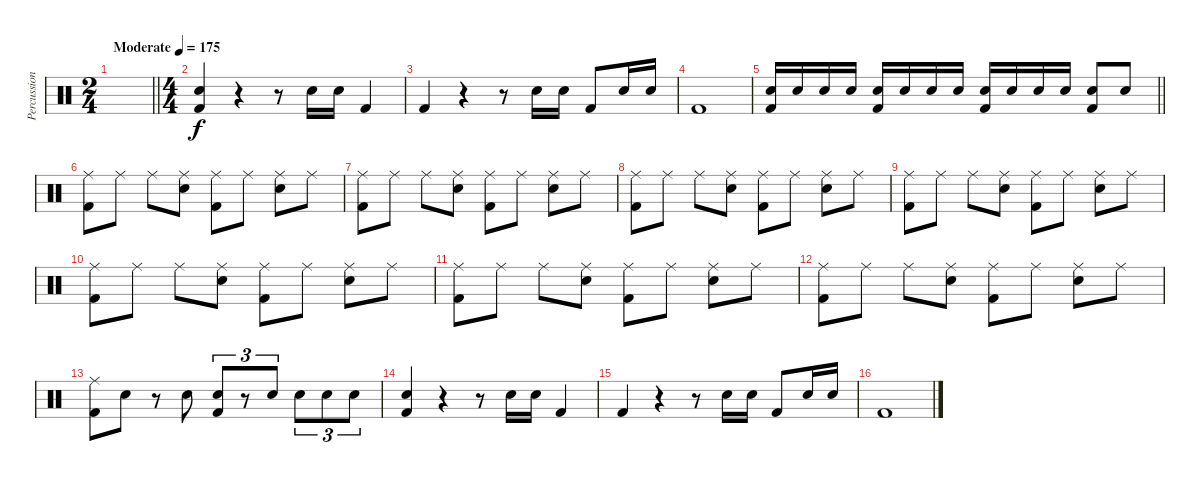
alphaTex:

\track ("Percussion" "Percussion") {instrument percussion}
\staff {score}
\articulation defaults
\ts (2 4)
\tempo (175 "Moderate")
\clef neutral
\barLineRight lightlight
\ks c
|
\ts (4 4)
("Snare (hit) 2" "Kick (hit) 2").4 r.4 r.8 "Snare (hit) 2".16 "Snare (hit) 2".16 "Kick (hit) 2".4 |
"Kick (hit) 2".4 r.4 r.8 "Snare (hit) 2".16 "Snare (hit) 2".16 "Kick (hit) 2".8 "Snare (hit) 2".16 "Snare (hit) 2".16 |
"Kick (hit) 2".1 |
\barLineRight lightlight
("Snare (hit) 2" "Kick (hit) 2").16 "Snare (hit) 2".16 "Snare (hit) 2".16 "Snare (hit) 2".16 ("Snare (hit) 2" "Kick (hit) 2").16 "Snare (hit) 2".16 "Snare (hit) 2".16 "Snare (hit) 2".16 ("Snare (hit) 2" "Kick (hit) 2").16 "Snare (hit) 2".16 "Snare (hit) 2".16 "Snare (hit) 2".16 ("Snare (hit) 2" "Kick (hit) 2").8 "Snare (hit) 2".8 |
("Ride (middle)" "Kick (hit) 2").8 "Ride (middle)".8 "Ride (middle)".8 ("Ride (middle)" "Snare (hit) 2").8 ("Ride (middle)" "Kick (hit) 2").8 "Ride (middle)".8 ("Ride (middle)" "Snare (hit) 2").8 "Ride (middle)".8 |
("Ride (middle)" "Kick (hit) 2").8 "Ride (middle)".8 "Ride (middle)".8 ("Ride (middle)" "Snare (hit) 2").8 ("Ride (middle)" "Kick (hit) 2").8 "Ride (middle)".8 ("Ride (middle)" "Snare (hit) 2").8 "Ride (middle)".8 |
("Ride (middle)" "Kick (hit) 2").8 "Ride (middle)".8 "Ride (middle)".8 ("Ride (middle)" "Snare (hit) 2").8 ("Ride (middle)" "Kick (hit) 2").8 "Ride (middle)".8 ("Ride (middle)" "Snare (hit) 2").8 "Ride (middle)".8 |
("Ride (middle)" "Kick (hit) 2").8 "Ride (middle)".8 "Ride (middle)".8 ("Ride (middle)" "Snare (hit) 2").8 ("Ride (middle)" "Kick (hit) 2").8 "Ride (middle)".8 ("Ride (middle)" "Snare (hit) 2").8 "Ride (middle)".8 |
("Ride (middle)" "Kick (hit) 2").8 "Ride (middle)".8 "Ride (middle)".8 ("Ride (middle)" "Snare (hit) 2").8 ("Ride (middle)" "Kick (hit) 2").8 "Ride (middle)".8 ("Ride (middle)" "Snare (hit) 2").8 "Ride (middle)".8 |
("Ride (middle)" "Kick (hit) 2").8 "Ride (middle)".8 "Ride (middle)".8 ("Ride (middle)" "Snare (hit) 2").8 ("Ride (middle)" "Kick (hit) 2").8 "Ride (middle)".8 ("Ride (middle)" "Snare (hit) 2").8 "Ride (middle)".8 |
("Ride (middle)" "Kick (hit) 2").8 "Ride (middle)".8 "Ride (middle)".8 ("Ride (middle)" "Snare (hit) 2").8 ("Ride (middle)" "Kick (hit) 2").8 "Ride (middle)".8 ("Ride (middle)" "Snare (hit) 2").8 "Ride (middle)".8 |
("Ride (middle)" "Kick (hit) 2").8 "Snare (hit) 2".8 r.8 "Snare (hit) 2".8 ("Snare (hit) 2" "Kick (hit) 2").8{tu (3 2)} r.8{tu (3 2)} "Snare (hit) 2".8{tu (3 2)} "Snare (hit) 2".8{tu (3 2)} "Snare (hit) 2".8{tu (3 2)} "Snare (hit) 2".8{tu (3 2)} |
("Snare (hit) 2" "Kick (hit) 2").4 r.4 r.8 "Snare (hit) 2".16 "Snare (hit) 2".16 "Kick (hit) 2".4 |
"Kick (hit) 2".4 r.4 r.8 "Snare (hit) 2".16 "Snare (hit) 2".16 "Kick (hit) 2".8 "Snare (hit) 2".16 "Snare (hit) 2".16 |
"Kick (hit) 2".1
